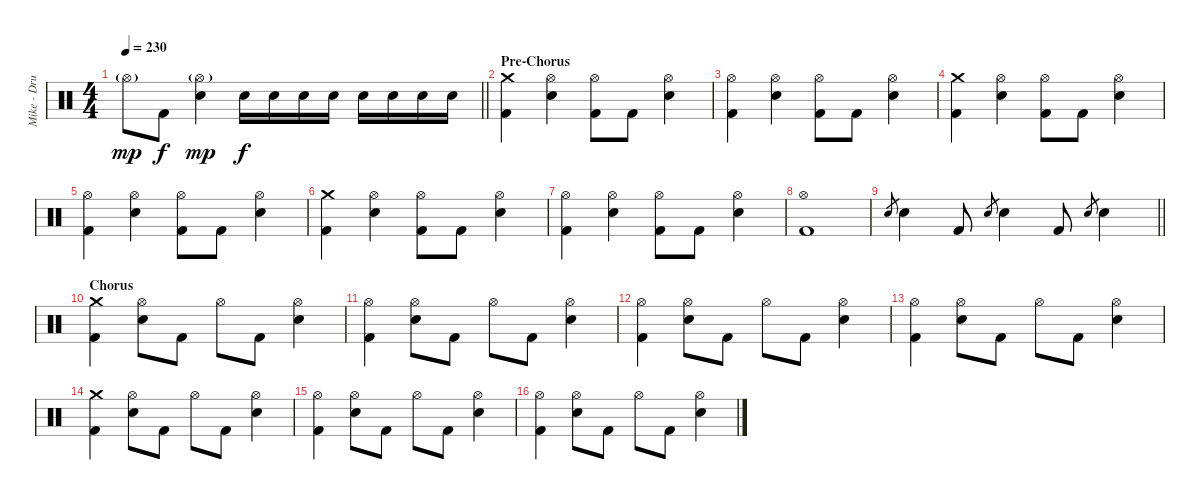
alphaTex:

\track ("Mike - Drums" "Mike - Dru") {instrument percussion}
\staff {score}
\articulation defaults
\ts (4 4)
\tempo 230
\clef neutral
\barLineRight lightlight
\ks c "Hi-Hat (open)"{g}.8{dy mp} "Kick (hit) 2".8{dy f}
("Hi-Hat (open)"{g} "Electric Snare (hit)").4{dy mp} "Electric Snare (hit)".16{dy f} "Electric Snare (hit)".16 "Electric Snare (hit)".16 "Electric Snare (hit)".16 "Electric Snare (hit)".16 "Electric Snare (hit)".16 "Electric Snare (hit)".16 "Electric Snare (hit)".16 |
\section ("" "Pre-Chorus")
("Crash medium (hit)" "Kick (hit) 2").4 ("Hi-Hat (open)" "Electric Snare (hit)").4 ("Hi-Hat (open)" "Kick (hit) 2").8 "Kick (hit) 2".8 ("Hi-Hat (open)" "Electric Snare (hit)").4 |
("Hi-Hat (open)" "Kick (hit) 2").4 ("Hi-Hat (open)" "Electric Snare (hit)").4 ("Hi-Hat (open)" "Kick (hit) 2").8 "Kick (hit) 2".8 ("Hi-Hat (open)" "Electric Snare (hit)").4 |
("Crash medium (hit)" "Kick (hit) 2").4 ("Hi-Hat (open)" "Electric Snare (hit)").4 ("Hi-Hat (open)" "Kick (hit) 2").8 "Kick (hit) 2".8 ("Hi-Hat (open)" "Electric Snare (hit)").4 |
("Hi-Hat (open)" "Kick (hit) 2").4 ("Hi-Hat (open)" "Electric Snare (hit)").4 ("Hi-Hat (open)" "Kick (hit) 2").8 "Kick (hit) 2".8 ("Hi-Hat (open)" "Electric Snare (hit)").4 |
("Crash medium (hit)" "Kick (hit) 2").4 ("Hi-Hat (open)" "Electric Snare (hit)").4 ("Hi-Hat (open)" "Kick (hit) 2").8 "Kick (hit) 2".8 ("Hi-Hat (open)" "Electric Snare (hit)").4 |
("Hi-Hat (open)" "Kick (hit) 2").4 ("Hi-Hat (open)" "Electric Snare (hit)").4 ("Hi-Hat (open)" "Kick (hit) 2").8 "Kick (hit) 2".8 ("Hi-Hat (open)" "Electric Snare (hit)").4 |
("Hi-Hat (open)" "Kick (hit) 2").1 |
\barLineRight lightlight "Electric Snare (hit)".8{gr} "Electric Snare (hit)".4 "Kick (hit) 2".8 "Electric Snare (hit)".8{gr} "Electric Snare (hit)".4 "Kick (hit) 2".8 "Electric Snare (hit)".8{gr} "Electric Snare (hit)".4
|
\section ("" "Chorus")
("Crash medium (hit)" "Kick (hit) 2").4 ("Hi-Hat (open)" "Electric Snare (hit)").8 "Kick (hit) 2".8 "Hi-Hat (open)".8 "Kick (hit) 2".8 ("Hi-Hat (open)" "Electric Snare (hit)").4 |
("Hi-Hat (open)" "Kick (hit) 2").4 ("Hi-Hat (open)" "Electric Snare (hit)").8 "Kick (hit) 2".8 "Hi-Hat (open)".8 "Kick (hit) 2".8 ("Hi-Hat (open)" "Electric Snare (hit)").4 |
("Hi-Hat (open)" "Kick (hit) 2").4 ("Hi-Hat (open)" "Electric Snare (hit)").8 "Kick (hit) 2".8 "Hi-Hat (open)".8 "Kick (hit) 2".8 ("Hi-Hat (open)" "Electric Snare (hit)").4 |
("Hi-Hat (open)" "Kick (hit) 2").4 ("Hi-Hat (open)" "Electric Snare (hit)").8 "Kick (hit) 2".8 "Hi-Hat (open)".8 "Kick (hit) 2".8 ("Hi-Hat (open)" "Electric Snare (hit)").4 |
("Crash medium (hit)" "Kick (hit) 2").4 ("Hi-Hat (open)" "Electric Snare (hit)").8 "Kick (hit) 2".8 "Hi-Hat (open)".8 "Kick (hit) 2".8 ("Hi-Hat (open)" "Electric Snare (hit)").4 |
("Hi-Hat (open)" "Kick (hit) 2").4 ("Hi-Hat (open)" "Electric Snare (hit)").8 "Kick (hit) 2".8 "Hi-Hat (open)".8 "Kick (hit) 2".8 ("Hi-Hat (open)" "Electric Snare (hit)").4 |
("Hi-Hat (open)" "Kick (hit) 2").4 ("Hi-Hat (open)" "Electric Snare (hit)").8 "Kick (hit) 2".8 "Hi-Hat (open)".8 "Kick (hit) 2".8 ("Hi-Hat (open)" "Electric Snare (hit)").4
